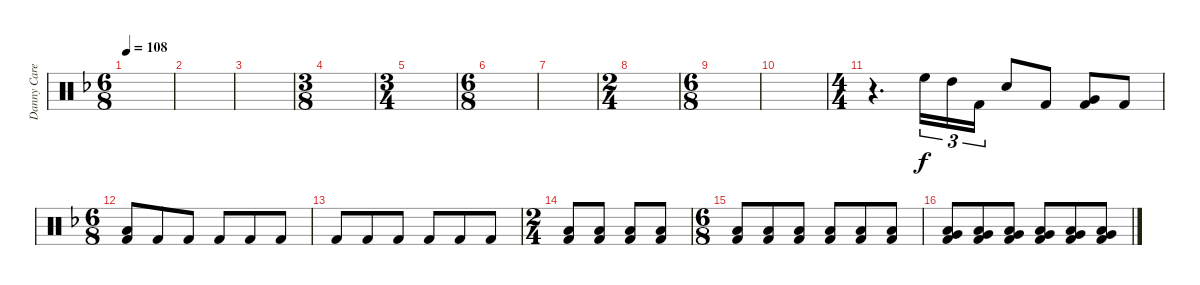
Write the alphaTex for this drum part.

\track ("Danny Carey" "Danny Care") {instrument percussion}
\staff {score}
\articulation defaults
\ts (6 8)
\tempo 108
\clef neutral
\ks dminor
|
|
|
\ts (3 8)
|
\ts (3 4)
|
\ts (6 8)
|
|
\ts (2 4)
|
\ts (6 8)
|
|
\ts (4 4)
r.4{d} "High Floor Tom (hit)".16{tu (3 2)} "High Tom (hit)".16{tu (3 2)} "Kick (hit) 2".16{tu (3 2)} "Electric Snare (hit)".8 "Kick (hit) 2".8 ("Very Low Tom (hit)" "Kick (hit) 2").8 "Kick (hit) 2".8 |
\ts (6 8)
("Low Floor Tom (hit)" "Kick (hit) 2").8 "Kick (hit) 2".8 "Kick (hit) 2".8 "Kick (hit) 2".8 "Kick (hit) 2".8 "Kick (hit) 2".8 |
"Kick (hit) 2".8 "Kick (hit) 2".8 "Kick (hit) 2".8 "Kick (hit) 2".8 "Kick (hit) 2".8 "Kick (hit) 2".8 |
\ts (2 4)
("Low Floor Tom (hit)" "Kick (hit) 2").8 ("Low Floor Tom (hit)" "Kick (hit) 2").8 ("Low Floor Tom (hit)" "Kick (hit) 2").8 ("Low Floor Tom (hit)" "Kick (hit) 2").8 |
\ts (6 8)
("Low Floor Tom (hit)" "Kick (hit) 2").8 ("Low Floor Tom (hit)" "Kick (hit) 2").8 ("Low Floor Tom (hit)" "Kick (hit) 2").8 ("Low Floor Tom (hit)" "Kick (hit) 2").8 ("Low Floor Tom (hit)" "Kick (hit) 2").8 ("Low Floor Tom (hit)" "Kick (hit) 2").8 |
("Very Low Tom (hit)" "Low Floor Tom (hit)" "Kick (hit) 2").8 ("Very Low Tom (hit)" "Low Floor Tom (hit)" "Kick (hit) 2").8 ("Very Low Tom (hit)" "Low Floor Tom (hit)" "Kick (hit) 2").8 ("Very Low Tom (hit)" "Low Floor Tom (hit)" "Kick (hit) 2").8 ("Very Low Tom (hit)" "Low Floor Tom (hit)" "Kick (hit) 2").8 ("Very Low Tom (hit)" "Low Floor Tom (hit)" "Kick (hit) 2").8
